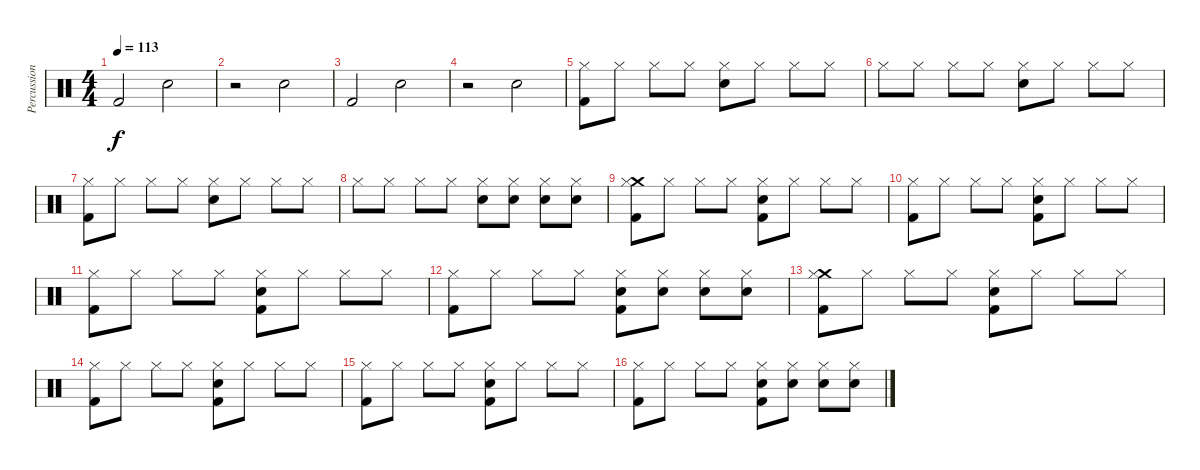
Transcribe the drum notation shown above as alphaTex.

\track ("Percussion" "Percussion") {instrument percussion}
\staff {score}
\articulation defaults
\ts (4 4)
\tempo 113
\clef neutral
\ks c "Kick (hit) 2".2{dy f} "Electric Snare (hit)".2
|
r.2 "Electric Snare (hit)".2 |
"Kick (hit) 2".2 "Electric Snare (hit)".2 |
r.2 "Electric Snare (hit)".2 |
("Hi-Hat (closed)" "Kick (hit) 2").8 "Hi-Hat (closed)".8 "Hi-Hat (closed)".8 "Hi-Hat (closed)".8 ("Hi-Hat (closed)" "Electric Snare (hit)").8 "Hi-Hat (closed)".8 "Hi-Hat (closed)".8 "Hi-Hat (closed)".8 |
"Hi-Hat (closed)".8 "Hi-Hat (closed)".8 "Hi-Hat (closed)".8 "Hi-Hat (closed)".8 ("Hi-Hat (closed)" "Electric Snare (hit)").8 "Hi-Hat (closed)".8 "Hi-Hat (closed)".8 "Hi-Hat (closed)".8 |
("Hi-Hat (closed)" "Kick (hit) 2").8 "Hi-Hat (closed)".8 "Hi-Hat (closed)".8 "Hi-Hat (closed)".8 ("Hi-Hat (closed)" "Electric Snare (hit)").8 "Hi-Hat (closed)".8 "Hi-Hat (closed)".8 "Hi-Hat (closed)".8 |
"Hi-Hat (closed)".8 "Hi-Hat (closed)".8 "Hi-Hat (closed)".8 "Hi-Hat (closed)".8 ("Hi-Hat (closed)" "Electric Snare (hit)").8 ("Snare (hit) 2" "Hi-Hat (closed)").8 ("Snare (hit) 2" "Hi-Hat (closed)").8 ("Snare (hit) 2" "Hi-Hat (closed)").8 |
("Crash medium (hit)" "Hi-Hat (closed)" "Kick (hit) 2").8 "Hi-Hat (closed)".8 "Hi-Hat (closed)".8 "Hi-Hat (closed)".8 ("Hi-Hat (closed)" "Electric Snare (hit)" "Kick (hit) 2").8 "Hi-Hat (closed)".8 "Hi-Hat (closed)".8 "Hi-Hat (closed)".8 |
("Hi-Hat (closed)" "Kick (hit) 2").8 "Hi-Hat (closed)".8 "Hi-Hat (closed)".8 "Hi-Hat (closed)".8 ("Hi-Hat (closed)" "Electric Snare (hit)" "Kick (hit) 2").8 "Hi-Hat (closed)".8 "Hi-Hat (closed)".8 "Hi-Hat (closed)".8 |
("Hi-Hat (closed)" "Kick (hit) 2").8 "Hi-Hat (closed)".8 "Hi-Hat (closed)".8 "Hi-Hat (closed)".8 ("Hi-Hat (closed)" "Electric Snare (hit)" "Kick (hit) 2").8 "Hi-Hat (closed)".8 "Hi-Hat (closed)".8 "Hi-Hat (closed)".8 |
("Hi-Hat (closed)" "Kick (hit) 2").8 "Hi-Hat (closed)".8 "Hi-Hat (closed)".8 "Hi-Hat (closed)".8 ("Hi-Hat (closed)" "Electric Snare (hit)" "Kick (hit) 2").8 ("Snare (hit) 2" "Hi-Hat (closed)").8 ("Snare (hit) 2" "Hi-Hat (closed)").8 ("Snare (hit) 2" "Hi-Hat (closed)").8 |
("Crash medium (hit)" "Hi-Hat (closed)" "Kick (hit) 2").8 "Hi-Hat (closed)".8 "Hi-Hat (closed)".8 "Hi-Hat (closed)".8 ("Hi-Hat (closed)" "Electric Snare (hit)" "Kick (hit) 2").8 "Hi-Hat (closed)".8 "Hi-Hat (closed)".8 "Hi-Hat (closed)".8 |
("Hi-Hat (closed)" "Kick (hit) 2").8 "Hi-Hat (closed)".8 "Hi-Hat (closed)".8 "Hi-Hat (closed)".8 ("Hi-Hat (closed)" "Electric Snare (hit)" "Kick (hit) 2").8 "Hi-Hat (closed)".8 "Hi-Hat (closed)".8 "Hi-Hat (closed)".8 |
("Hi-Hat (closed)" "Kick (hit) 2").8 "Hi-Hat (closed)".8 "Hi-Hat (closed)".8 "Hi-Hat (closed)".8 ("Hi-Hat (closed)" "Electric Snare (hit)" "Kick (hit) 2").8 "Hi-Hat (closed)".8 "Hi-Hat (closed)".8 "Hi-Hat (closed)".8 |
("Hi-Hat (closed)" "Kick (hit) 2").8 "Hi-Hat (closed)".8 "Hi-Hat (closed)".8 "Hi-Hat (closed)".8 ("Hi-Hat (closed)" "Electric Snare (hit)" "Kick (hit) 2").8 ("Snare (hit) 2" "Hi-Hat (closed)").8 ("Snare (hit) 2" "Hi-Hat (closed)").8 ("Snare (hit) 2" "Hi-Hat (closed)").8
